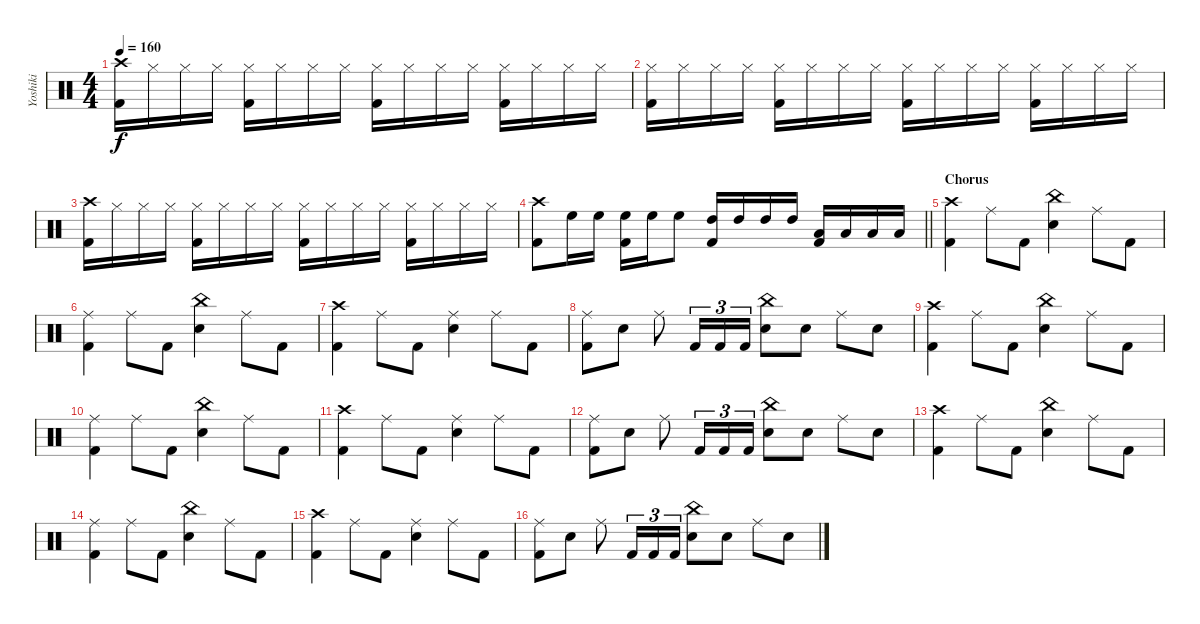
\track ("Yoshiki" "Yoshiki") {instrument percussion}
\staff {score}
\articulation defaults
\ts (4 4)
\tempo 160
\clef neutral
\ks c
("Crash high (hit)" "Kick (hit) 2").16{dy f} "Hi-Hat (closed)".16 "Hi-Hat (closed)".16 "Hi-Hat (closed)".16 ("Hi-Hat (closed)" "Kick (hit) 2").16 "Hi-Hat (closed)".16 "Hi-Hat (closed)".16 "Hi-Hat (closed)".16 ("Hi-Hat (closed)" "Kick (hit) 2").16 "Hi-Hat (closed)".16 "Hi-Hat (closed)".16 "Hi-Hat (closed)".16 ("Hi-Hat (closed)" "Kick (hit) 2").16 "Hi-Hat (closed)".16 "Hi-Hat (closed)".16 "Hi-Hat (closed)".16 |
("Hi-Hat (closed)" "Kick (hit) 2").16 "Hi-Hat (closed)".16 "Hi-Hat (closed)".16 "Hi-Hat (closed)".16 ("Hi-Hat (closed)" "Kick (hit) 2").16 "Hi-Hat (closed)".16 "Hi-Hat (closed)".16 "Hi-Hat (closed)".16 ("Hi-Hat (closed)" "Kick (hit) 2").16 "Hi-Hat (closed)".16 "Hi-Hat (closed)".16 "Hi-Hat (closed)".16 ("Hi-Hat (closed)" "Kick (hit) 2").16 "Hi-Hat (closed)".16 "Hi-Hat (closed)".16 "Hi-Hat (closed)".16 |
("Crash high (hit)" "Kick (hit) 2").16 "Hi-Hat (closed)".16 "Hi-Hat (closed)".16 "Hi-Hat (closed)".16 ("Hi-Hat (closed)" "Kick (hit) 2").16 "Hi-Hat (closed)".16 "Hi-Hat (closed)".16 "Hi-Hat (closed)".16 ("Hi-Hat (closed)" "Kick (hit) 2").16 "Hi-Hat (closed)".16 "Hi-Hat (closed)".16 "Hi-Hat (closed)".16 ("Hi-Hat (closed)" "Kick (hit) 2").16 "Hi-Hat (closed)".16 "Hi-Hat (closed)".16 "Hi-Hat (closed)".16 |
\barLineRight lightlight
("Crash high (hit)" "Kick (hit) 2").8 "High Floor Tom (hit)".16 "High Floor Tom (hit)".16 ("High Floor Tom (hit)" "Kick (hit) 2").16 "High Floor Tom (hit)".16 "High Floor Tom (hit)".8 ("High Tom (hit)" "Kick (hit) 2").16 "High Tom (hit)".16 "High Tom (hit)".16 "High Tom (hit)".16 ("Low Tom (hit)" "Kick (hit) 2").16 "Low Tom (hit)".16 "Low Tom (hit)".16 "Low Tom (hit)".16 |
\section ("" "Chorus")
("Crash high (hit)" "Kick (hit) 2").4 "Ride (middle)".8 "Kick (hit) 2".8 ("China (hit)" "Snare (hit) 2").4 "Ride (middle)".8 "Kick (hit) 2".8 |
("Ride (middle)" "Kick (hit) 2").4 "Ride (middle)".8 "Kick (hit) 2".8 ("China (hit)" "Snare (hit) 2").4 "Ride (middle)".8 "Kick (hit) 2".8 |
("Crash high (hit)" "Kick (hit) 2").4 "Ride (middle)".8 "Kick (hit) 2".8 ("Ride (middle)" "Snare (hit) 2").4 "Ride (middle)".8 "Kick (hit) 2".8 |
("Ride (middle)" "Kick (hit) 2").8 "Snare (hit) 2".8 "Ride (middle)".8 "Kick (hit) 2".16{tu (3 2)} "Kick (hit) 2".16{tu (3 2)} "Kick (hit) 2".16{tu (3 2)} ("China (hit)" "Snare (hit) 2").8 "Snare (hit) 2".8 "Ride (middle)".8 "Snare (hit) 2".8 |
("Crash high (hit)" "Kick (hit) 2").4 "Ride (middle)".8 "Kick (hit) 2".8 ("China (hit)" "Snare (hit) 2").4 "Ride (middle)".8 "Kick (hit) 2".8 |
("Ride (middle)" "Kick (hit) 2").4 "Ride (middle)".8 "Kick (hit) 2".8 ("China (hit)" "Snare (hit) 2").4 "Ride (middle)".8 "Kick (hit) 2".8 |
("Crash high (hit)" "Kick (hit) 2").4 "Ride (middle)".8 "Kick (hit) 2".8 ("Ride (middle)" "Snare (hit) 2").4 "Ride (middle)".8 "Kick (hit) 2".8 |
("Ride (middle)" "Kick (hit) 2").8 "Snare (hit) 2".8 "Ride (middle)".8 "Kick (hit) 2".16{tu (3 2)} "Kick (hit) 2".16{tu (3 2)} "Kick (hit) 2".16{tu (3 2)} ("China (hit)" "Snare (hit) 2").8 "Snare (hit) 2".8 "Ride (middle)".8 "Snare (hit) 2".8 |
("Crash high (hit)" "Kick (hit) 2").4 "Ride (middle)".8 "Kick (hit) 2".8 ("China (hit)" "Snare (hit) 2").4 "Ride (middle)".8 "Kick (hit) 2".8 |
("Ride (middle)" "Kick (hit) 2").4 "Ride (middle)".8 "Kick (hit) 2".8 ("China (hit)" "Snare (hit) 2").4 "Ride (middle)".8 "Kick (hit) 2".8 |
("Crash high (hit)" "Kick (hit) 2").4 "Ride (middle)".8 "Kick (hit) 2".8 ("Ride (middle)" "Snare (hit) 2").4 "Ride (middle)".8 "Kick (hit) 2".8 |
("Ride (middle)" "Kick (hit) 2").8 "Snare (hit) 2".8 "Ride (middle)".8 "Kick (hit) 2".16{tu (3 2)} "Kick (hit) 2".16{tu (3 2)} "Kick (hit) 2".16{tu (3 2)} ("China (hit)" "Snare (hit) 2").8 "Snare (hit) 2".8 "Ride (middle)".8 "Snare (hit) 2".8
